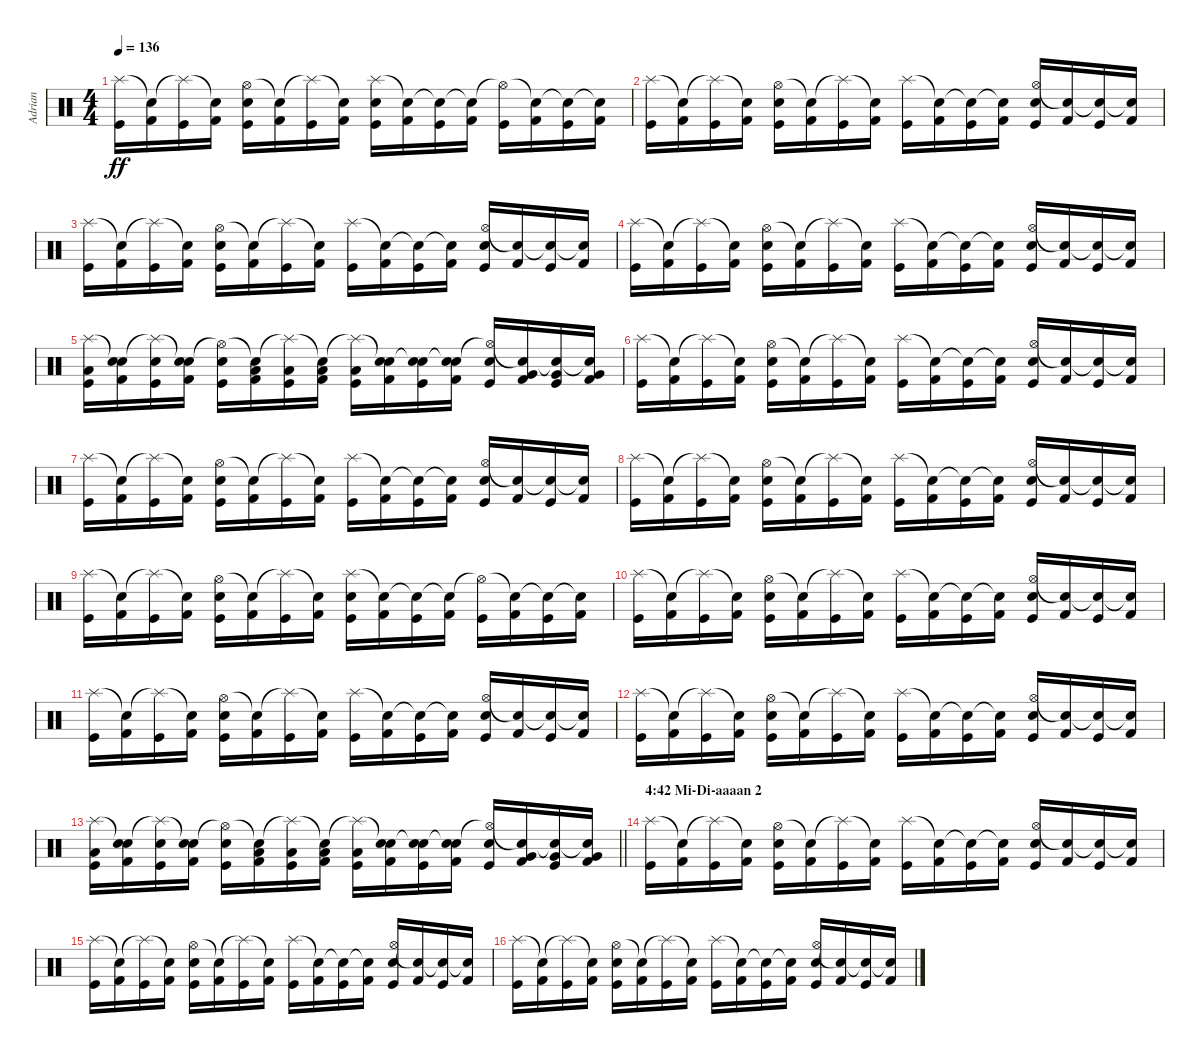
\track ("Adrian" "Adrian") {instrument percussion}
\staff {score}
\articulation defaults
\ts (4 4)
\tempo 136
\clef neutral
\ks c
("Splash (hit)" "Kick (hit)").16{dy ff} ("Snare (hit)"{t} "Kick (hit) 2").16 ("Splash (hit)"{t} "Kick (hit)").16 ("Snare (hit)"{t} "Kick (hit) 2").16 ("Hi-Hat (open)" "Electric Snare (hit)" "Kick (hit)").16 ("Snare (hit)"{t} "Kick (hit) 2").16 ("Splash (hit)"{t} "Kick (hit)").16 ("Snare (hit)"{t} "Kick (hit) 2").16 ("Splash (hit)" "Electric Snare (hit)" "Kick (hit)").16 ("Snare (hit)"{t} "Kick (hit) 2").16 ("Snare (hit)"{t} "Kick (hit)").16 ("Snare (hit)"{t} "Kick (hit) 2").16 ("Hi-Hat (open)"{t} "Kick (hit)").16 ("Snare (hit)"{t} "Kick (hit) 2").16 ("Snare (hit)"{t} "Kick (hit)").16 ("Snare (hit)"{t} "Kick (hit) 2").16 |
("Splash (hit)" "Kick (hit)").16 ("Snare (hit)"{t} "Kick (hit) 2").16 ("Splash (hit)"{t} "Kick (hit)").16 ("Snare (hit)"{t} "Kick (hit) 2").16 ("Hi-Hat (open)" "Electric Snare (hit)" "Kick (hit)").16 ("Snare (hit)"{t} "Kick (hit) 2").16 ("Splash (hit)"{t} "Kick (hit)").16 ("Snare (hit)"{t} "Kick (hit) 2").16 ("Splash (hit)" "Kick (hit)").16 ("Snare (hit)"{t} "Kick (hit) 2").16 ("Snare (hit)"{t} "Kick (hit)").16 ("Snare (hit)"{t} "Kick (hit) 2").16 ("Hi-Hat (open)" "Electric Snare (hit)" "Kick (hit)").16 ("Snare (hit)"{t} "Kick (hit) 2").16 ("Snare (hit)"{t} "Kick (hit)").16 ("Snare (hit)"{t} "Kick (hit) 2").16 |
("Splash (hit)" "Kick (hit)").16 ("Snare (hit)"{t} "Kick (hit) 2").16 ("Splash (hit)"{t} "Kick (hit)").16 ("Snare (hit)"{t} "Kick (hit) 2").16 ("Hi-Hat (open)" "Electric Snare (hit)" "Kick (hit)").16 ("Snare (hit)"{t} "Kick (hit) 2").16 ("Splash (hit)"{t} "Kick (hit)").16 ("Snare (hit)"{t} "Kick (hit) 2").16 ("Splash (hit)" "Kick (hit)").16 ("Snare (hit)"{t} "Kick (hit) 2").16 ("Snare (hit)"{t} "Kick (hit)").16 ("Snare (hit)"{t} "Kick (hit) 2").16 ("Hi-Hat (open)" "Electric Snare (hit)" "Kick (hit)").16 ("Snare (hit)"{t} "Kick (hit) 2").16 ("Snare (hit)"{t} "Kick (hit)").16 ("Snare (hit)"{t} "Kick (hit) 2").16 |
("Splash (hit)" "Kick (hit)").16 ("Snare (hit)"{t} "Kick (hit) 2").16 ("Splash (hit)"{t} "Kick (hit)").16 ("Snare (hit)"{t} "Kick (hit) 2").16 ("Hi-Hat (open)" "Electric Snare (hit)" "Kick (hit)").16 ("Snare (hit)"{t} "Kick (hit) 2").16 ("Splash (hit)"{t} "Kick (hit)").16 ("Snare (hit)"{t} "Kick (hit) 2").16 ("Splash (hit)" "Kick (hit)").16 ("Snare (hit)"{t} "Kick (hit) 2").16 ("Snare (hit)"{t} "Kick (hit)").16 ("Snare (hit)"{t} "Kick (hit) 2").16 ("Hi-Hat (open)" "Electric Snare (hit)" "Kick (hit)").16 ("Snare (hit)"{t} "Kick (hit) 2").16 ("Snare (hit)"{t} "Kick (hit)").16 ("Snare (hit)"{t} "Kick (hit) 2").16 |
("Splash (hit)" "Low Floor Tom (hit)" "Kick (hit)").16 ("Snare (hit)"{t} "Electric Snare (hit)" "Kick (hit) 2").16 ("Splash (hit)"{t} "Electric Snare (hit)" "Kick (hit)").16 ("Snare (hit)"{t} "Electric Snare (hit)" "Kick (hit) 2").16 ("Hi-Hat (open)"{t} "Electric Snare (hit)" "Kick (hit)").16 ("Snare (hit)"{t} "Low Tom (hit)" "Kick (hit) 2").16 ("Splash (hit)"{t} "Low Tom (hit)" "Kick (hit)").16 ("Snare (hit)"{t} "Low Tom (hit)" "Kick (hit) 2").16 ("Splash (hit)"{t} "Low Floor Tom (hit)" "Kick (hit)").16 ("Snare (hit)"{t} "Electric Snare (hit)" "Kick (hit) 2").16 ("Snare (hit)"{t} "Electric Snare (hit)" "Kick (hit)").16 ("Snare (hit)"{t} "Electric Snare (hit)" "Kick (hit) 2").16 ("Hi-Hat (open)"{t} "Electric Snare (hit)" "Kick (hit)").16 ("Snare (hit)"{t} "Very Low Tom (hit)" "Kick (hit) 2").16 ("Snare (hit)"{t} "Very Low Tom (hit)" "Kick (hit)").16 ("Snare (hit)"{t} "Very Low Tom (hit)" "Kick (hit) 2").16 |
("Splash (hit)" "Kick (hit)").16 ("Snare (hit)"{t} "Kick (hit) 2").16 ("Splash (hit)"{t} "Kick (hit)").16 ("Snare (hit)"{t} "Kick (hit) 2").16 ("Hi-Hat (open)" "Electric Snare (hit)" "Kick (hit)").16 ("Snare (hit)"{t} "Kick (hit) 2").16 ("Splash (hit)"{t} "Kick (hit)").16 ("Snare (hit)"{t} "Kick (hit) 2").16 ("Splash (hit)" "Kick (hit)").16 ("Snare (hit)"{t} "Kick (hit) 2").16 ("Snare (hit)"{t} "Kick (hit)").16 ("Snare (hit)"{t} "Kick (hit) 2").16 ("Hi-Hat (open)" "Electric Snare (hit)" "Kick (hit)").16 ("Snare (hit)"{t} "Kick (hit) 2").16 ("Snare (hit)"{t} "Kick (hit)").16 ("Snare (hit)"{t} "Kick (hit) 2").16 |
("Splash (hit)" "Kick (hit)").16 ("Snare (hit)"{t} "Kick (hit) 2").16 ("Splash (hit)"{t} "Kick (hit)").16 ("Snare (hit)"{t} "Kick (hit) 2").16 ("Hi-Hat (open)" "Electric Snare (hit)" "Kick (hit)").16 ("Snare (hit)"{t} "Kick (hit) 2").16 ("Splash (hit)"{t} "Kick (hit)").16 ("Snare (hit)"{t} "Kick (hit) 2").16 ("Splash (hit)" "Kick (hit)").16 ("Snare (hit)"{t} "Kick (hit) 2").16 ("Snare (hit)"{t} "Kick (hit)").16 ("Snare (hit)"{t} "Kick (hit) 2").16 ("Hi-Hat (open)" "Electric Snare (hit)" "Kick (hit)").16 ("Snare (hit)"{t} "Kick (hit) 2").16 ("Snare (hit)"{t} "Kick (hit)").16 ("Snare (hit)"{t} "Kick (hit) 2").16 |
("Splash (hit)" "Kick (hit)").16 ("Snare (hit)"{t} "Kick (hit) 2").16 ("Splash (hit)"{t} "Kick (hit)").16 ("Snare (hit)"{t} "Kick (hit) 2").16 ("Hi-Hat (open)" "Electric Snare (hit)" "Kick (hit)").16 ("Snare (hit)"{t} "Kick (hit) 2").16 ("Splash (hit)"{t} "Kick (hit)").16 ("Snare (hit)"{t} "Kick (hit) 2").16 ("Splash (hit)" "Kick (hit)").16 ("Snare (hit)"{t} "Kick (hit) 2").16 ("Snare (hit)"{t} "Kick (hit)").16 ("Snare (hit)"{t} "Kick (hit) 2").16 ("Hi-Hat (open)" "Electric Snare (hit)" "Kick (hit)").16 ("Snare (hit)"{t} "Kick (hit) 2").16 ("Snare (hit)"{t} "Kick (hit)").16 ("Snare (hit)"{t} "Kick (hit) 2").16 |
("Splash (hit)" "Kick (hit)").16 ("Snare (hit)"{t} "Kick (hit) 2").16 ("Splash (hit)"{t} "Kick (hit)").16 ("Snare (hit)"{t} "Kick (hit) 2").16 ("Hi-Hat (open)" "Electric Snare (hit)" "Kick (hit)").16 ("Snare (hit)"{t} "Kick (hit) 2").16 ("Splash (hit)"{t} "Kick (hit)").16 ("Snare (hit)"{t} "Kick (hit) 2").16 ("Splash (hit)" "Electric Snare (hit)" "Kick (hit)").16 ("Snare (hit)"{t} "Kick (hit) 2").16 ("Snare (hit)"{t} "Kick (hit)").16 ("Snare (hit)"{t} "Kick (hit) 2").16 ("Hi-Hat (open)"{t} "Kick (hit)").16 ("Snare (hit)"{t} "Kick (hit) 2").16 ("Snare (hit)"{t} "Kick (hit)").16 ("Snare (hit)"{t} "Kick (hit) 2").16 |
("Splash (hit)" "Kick (hit)").16 ("Snare (hit)"{t} "Kick (hit) 2").16 ("Splash (hit)"{t} "Kick (hit)").16 ("Snare (hit)"{t} "Kick (hit) 2").16 ("Hi-Hat (open)" "Electric Snare (hit)" "Kick (hit)").16 ("Snare (hit)"{t} "Kick (hit) 2").16 ("Splash (hit)"{t} "Kick (hit)").16 ("Snare (hit)"{t} "Kick (hit) 2").16 ("Splash (hit)" "Kick (hit)").16 ("Snare (hit)"{t} "Kick (hit) 2").16 ("Snare (hit)"{t} "Kick (hit)").16 ("Snare (hit)"{t} "Kick (hit) 2").16 ("Hi-Hat (open)" "Electric Snare (hit)" "Kick (hit)").16 ("Snare (hit)"{t} "Kick (hit) 2").16 ("Snare (hit)"{t} "Kick (hit)").16 ("Snare (hit)"{t} "Kick (hit) 2").16 |
("Splash (hit)" "Kick (hit)").16 ("Snare (hit)"{t} "Kick (hit) 2").16 ("Splash (hit)"{t} "Kick (hit)").16 ("Snare (hit)"{t} "Kick (hit) 2").16 ("Hi-Hat (open)" "Electric Snare (hit)" "Kick (hit)").16 ("Snare (hit)"{t} "Kick (hit) 2").16 ("Splash (hit)"{t} "Kick (hit)").16 ("Snare (hit)"{t} "Kick (hit) 2").16 ("Splash (hit)" "Kick (hit)").16 ("Snare (hit)"{t} "Kick (hit) 2").16 ("Snare (hit)"{t} "Kick (hit)").16 ("Snare (hit)"{t} "Kick (hit) 2").16 ("Hi-Hat (open)" "Electric Snare (hit)" "Kick (hit)").16 ("Snare (hit)"{t} "Kick (hit) 2").16 ("Snare (hit)"{t} "Kick (hit)").16 ("Snare (hit)"{t} "Kick (hit) 2").16 |
("Splash (hit)" "Kick (hit)").16 ("Snare (hit)"{t} "Kick (hit) 2").16 ("Splash (hit)"{t} "Kick (hit)").16 ("Snare (hit)"{t} "Kick (hit) 2").16 ("Hi-Hat (open)" "Electric Snare (hit)" "Kick (hit)").16 ("Snare (hit)"{t} "Kick (hit) 2").16 ("Splash (hit)"{t} "Kick (hit)").16 ("Snare (hit)"{t} "Kick (hit) 2").16 ("Splash (hit)" "Kick (hit)").16 ("Snare (hit)"{t} "Kick (hit) 2").16 ("Snare (hit)"{t} "Kick (hit)").16 ("Snare (hit)"{t} "Kick (hit) 2").16 ("Hi-Hat (open)" "Electric Snare (hit)" "Kick (hit)").16 ("Snare (hit)"{t} "Kick (hit) 2").16 ("Snare (hit)"{t} "Kick (hit)").16 ("Snare (hit)"{t} "Kick (hit) 2").16 |
\barLineRight lightlight
("Splash (hit)" "Low Floor Tom (hit)" "Kick (hit)").16 ("Snare (hit)"{t} "Electric Snare (hit)" "Kick (hit) 2").16 ("Splash (hit)"{t} "Electric Snare (hit)" "Kick (hit)").16 ("Snare (hit)"{t} "Electric Snare (hit)" "Kick (hit) 2").16 ("Hi-Hat (open)"{t} "Electric Snare (hit)" "Kick (hit)").16 ("Snare (hit)"{t} "Low Tom (hit)" "Kick (hit) 2").16 ("Splash (hit)"{t} "Low Tom (hit)" "Kick (hit)").16 ("Snare (hit)"{t} "Low Tom (hit)" "Kick (hit) 2").16 ("Splash (hit)"{t} "Low Floor Tom (hit)" "Kick (hit)").16 ("Snare (hit)"{t} "Electric Snare (hit)" "Kick (hit) 2").16 ("Snare (hit)"{t} "Electric Snare (hit)" "Kick (hit)").16 ("Snare (hit)"{t} "Electric Snare (hit)" "Kick (hit) 2").16 ("Hi-Hat (open)"{t} "Electric Snare (hit)" "Kick (hit)").16 ("Snare (hit)"{t} "Very Low Tom (hit)" "Kick (hit) 2").16 ("Snare (hit)"{t} "Very Low Tom (hit)" "Kick (hit)").16 ("Snare (hit)"{t} "Very Low Tom (hit)" "Kick (hit) 2").16 |
\section ("" "4:42 Mi-Di-aaaan 2")
("Splash (hit)" "Kick (hit)").16 ("Snare (hit)"{t} "Kick (hit) 2").16 ("Splash (hit)"{t} "Kick (hit)").16 ("Snare (hit)"{t} "Kick (hit) 2").16 ("Hi-Hat (open)" "Electric Snare (hit)" "Kick (hit)").16 ("Snare (hit)"{t} "Kick (hit) 2").16 ("Splash (hit)"{t} "Kick (hit)").16 ("Snare (hit)"{t} "Kick (hit) 2").16 ("Splash (hit)" "Kick (hit)").16 ("Snare (hit)"{t} "Kick (hit) 2").16 ("Snare (hit)"{t} "Kick (hit)").16 ("Snare (hit)"{t} "Kick (hit) 2").16 ("Hi-Hat (open)" "Electric Snare (hit)" "Kick (hit)").16 ("Snare (hit)"{t} "Kick (hit) 2").16 ("Snare (hit)"{t} "Kick (hit)").16 ("Snare (hit)"{t} "Kick (hit) 2").16 |
("Splash (hit)" "Kick (hit)").16 ("Snare (hit)"{t} "Kick (hit) 2").16 ("Splash (hit)"{t} "Kick (hit)").16 ("Snare (hit)"{t} "Kick (hit) 2").16 ("Hi-Hat (open)" "Electric Snare (hit)" "Kick (hit)").16 ("Snare (hit)"{t} "Kick (hit) 2").16 ("Splash (hit)"{t} "Kick (hit)").16 ("Snare (hit)"{t} "Kick (hit) 2").16 ("Splash (hit)" "Kick (hit)").16 ("Snare (hit)"{t} "Kick (hit) 2").16 ("Snare (hit)"{t} "Kick (hit)").16 ("Snare (hit)"{t} "Kick (hit) 2").16 ("Hi-Hat (open)" "Electric Snare (hit)" "Kick (hit)").16 ("Snare (hit)"{t} "Kick (hit) 2").16 ("Snare (hit)"{t} "Kick (hit)").16 ("Snare (hit)"{t} "Kick (hit) 2").16 |
("Splash (hit)" "Kick (hit)").16 ("Snare (hit)"{t} "Kick (hit) 2").16 ("Splash (hit)"{t} "Kick (hit)").16 ("Snare (hit)"{t} "Kick (hit) 2").16 ("Hi-Hat (open)" "Electric Snare (hit)" "Kick (hit)").16 ("Snare (hit)"{t} "Kick (hit) 2").16 ("Splash (hit)"{t} "Kick (hit)").16 ("Snare (hit)"{t} "Kick (hit) 2").16 ("Splash (hit)" "Kick (hit)").16 ("Snare (hit)"{t} "Kick (hit) 2").16 ("Snare (hit)"{t} "Kick (hit)").16 ("Snare (hit)"{t} "Kick (hit) 2").16 ("Hi-Hat (open)" "Electric Snare (hit)" "Kick (hit)").16 ("Snare (hit)"{t} "Kick (hit) 2").16 ("Snare (hit)"{t} "Kick (hit)").16 ("Snare (hit)"{t} "Kick (hit) 2").16
